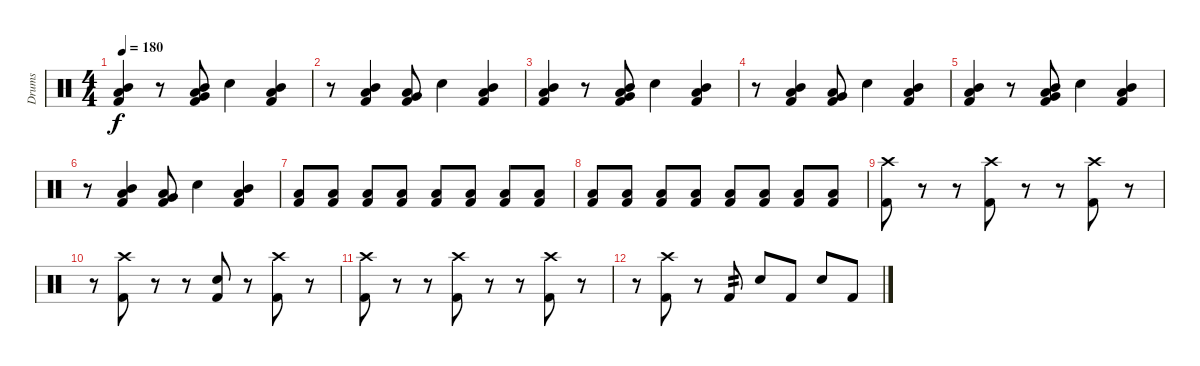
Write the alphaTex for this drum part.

\track ("Drums" "Drums") {instrument percussion}
\staff {score}
\articulation defaults
\ts (4 4)
\tempo 180
\clef neutral
\ks c
("Mid Tom (hit)" "Low Tom (hit)" "Kick (hit) 2").4{dy f} r.8 ("Mid Tom (hit)" "Low Tom (hit)" "Very Low Tom (hit)" "Kick (hit) 2").8 "Electric Snare (hit)".4 ("Mid Tom (hit)" "Low Tom (hit)" "Kick (hit) 2").4 |
r.8 ("Mid Tom (hit)" "Low Tom (hit)" "Kick (hit) 2").4 ("Low Tom (hit)" "Very Low Tom (hit)" "Kick (hit) 2").8 "Electric Snare (hit)".4 ("Mid Tom (hit)" "Low Tom (hit)" "Kick (hit) 2").4 |
("Mid Tom (hit)" "Low Tom (hit)" "Kick (hit) 2").4 r.8 ("Mid Tom (hit)" "Low Tom (hit)" "Very Low Tom (hit)" "Kick (hit) 2").8 "Electric Snare (hit)".4 ("Mid Tom (hit)" "Low Tom (hit)" "Kick (hit) 2").4 |
r.8 ("Mid Tom (hit)" "Low Tom (hit)" "Kick (hit) 2").4 ("Low Tom (hit)" "Very Low Tom (hit)" "Kick (hit) 2").8 "Electric Snare (hit)".4 ("Mid Tom (hit)" "Low Tom (hit)" "Kick (hit) 2").4 |
("Mid Tom (hit)" "Low Tom (hit)" "Kick (hit) 2").4 r.8 ("Mid Tom (hit)" "Low Tom (hit)" "Very Low Tom (hit)" "Kick (hit) 2").8 "Electric Snare (hit)".4 ("Mid Tom (hit)" "Low Tom (hit)" "Kick (hit) 2").4 |
r.8 ("Mid Tom (hit)" "Low Tom (hit)" "Kick (hit) 2").4 ("Low Tom (hit)" "Very Low Tom (hit)" "Kick (hit) 2").8 "Electric Snare (hit)".4 ("Mid Tom (hit)" "Low Tom (hit)" "Kick (hit) 2").4 |
("Low Tom (hit)" "Kick (hit) 2").8 ("Low Tom (hit)" "Kick (hit) 2").8 ("Low Tom (hit)" "Kick (hit) 2").8 ("Low Tom (hit)" "Kick (hit) 2").8 ("Low Tom (hit)" "Kick (hit) 2").8 ("Low Tom (hit)" "Kick (hit) 2").8 ("Low Tom (hit)" "Kick (hit) 2").8 ("Low Tom (hit)" "Kick (hit) 2").8 |
("Low Tom (hit)" "Kick (hit) 2").8 ("Low Tom (hit)" "Kick (hit) 2").8 ("Low Tom (hit)" "Kick (hit) 2").8 ("Low Tom (hit)" "Kick (hit) 2").8 ("Low Tom (hit)" "Kick (hit) 2").8 ("Low Tom (hit)" "Kick (hit) 2").8 ("Low Tom (hit)" "Kick (hit) 2").8 ("Low Tom (hit)" "Kick (hit) 2").8 |
("Crash high (hit)" "Kick (hit) 2").8 r.8 r.8 ("Crash high (hit)" "Kick (hit) 2").8 r.8 r.8 ("Crash high (hit)" "Kick (hit) 2").8 r.8 |
r.8 ("Crash high (hit)" "Kick (hit) 2").8 r.8 r.8 ("Electric Snare (hit)" "Kick (hit) 2").8 r.8 ("Crash high (hit)" "Kick (hit) 2").8 r.8 |
("Crash high (hit)" "Kick (hit) 2").8 r.8 r.8 ("Crash high (hit)" "Kick (hit) 2").8 r.8 r.8 ("Crash high (hit)" "Kick (hit) 2").8 r.8 |
r.8 ("Crash high (hit)" "Kick (hit) 2").8 r.8 "Kick (hit) 2".8{tp 2} "Electric Snare (hit)".8 "Kick (hit) 2".8 "Electric Snare (hit)".8 "Kick (hit) 2".8
